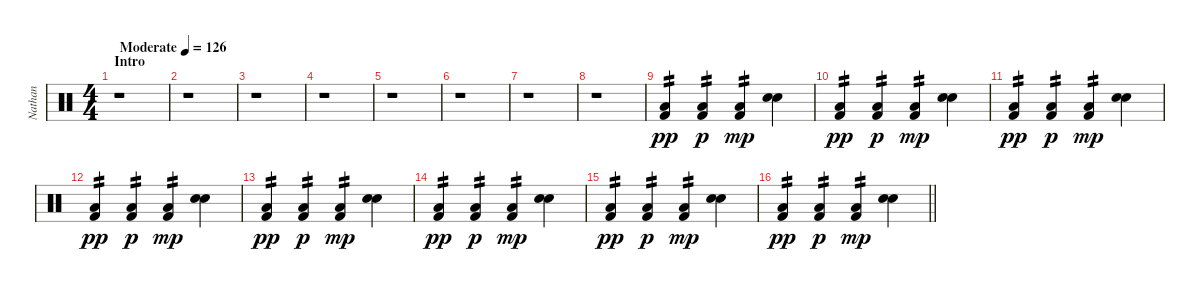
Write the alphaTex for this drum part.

\track ("Nathan" "Nathan") {instrument percussion}
\staff {score}
\articulation defaults
\ts (4 4)
\section ("" "Intro")
\tempo (126 "Moderate")
\clef neutral
\ks c
r.1{dy pp} |
r.1 |
r.1 |
r.1 |
r.1 |
r.1 |
r.1 |
r.1 |
("Kick (hit) 2" "Low Tom (hit)").4{tp 2} ("Kick (hit) 2" "Low Tom (hit)").4{tp 2 dy p} ("Kick (hit) 2" "Low Tom (hit)").4{tp 2 dy mp} ("Snare (hit) 2" "Electric Snare (hit)").4 |
("Kick (hit) 2" "Low Tom (hit)").4{tp 2 dy pp} ("Kick (hit) 2" "Low Tom (hit)").4{tp 2 dy p} ("Kick (hit) 2" "Low Tom (hit)").4{tp 2 dy mp} ("Snare (hit) 2" "Electric Snare (hit)").4 |
("Kick (hit) 2" "Low Tom (hit)").4{tp 2 dy pp} ("Kick (hit) 2" "Low Tom (hit)").4{tp 2 dy p} ("Kick (hit) 2" "Low Tom (hit)").4{tp 2 dy mp} ("Snare (hit) 2" "Electric Snare (hit)").4 |
("Kick (hit) 2" "Low Tom (hit)").4{tp 2 dy pp} ("Kick (hit) 2" "Low Tom (hit)").4{tp 2 dy p} ("Kick (hit) 2" "Low Tom (hit)").4{tp 2 dy mp} ("Snare (hit) 2" "Electric Snare (hit)").4 |
("Kick (hit) 2" "Low Tom (hit)").4{tp 2 dy pp} ("Kick (hit) 2" "Low Tom (hit)").4{tp 2 dy p} ("Kick (hit) 2" "Low Tom (hit)").4{tp 2 dy mp} ("Snare (hit) 2" "Electric Snare (hit)").4 |
("Kick (hit) 2" "Low Tom (hit)").4{tp 2 dy pp} ("Kick (hit) 2" "Low Tom (hit)").4{tp 2 dy p} ("Kick (hit) 2" "Low Tom (hit)").4{tp 2 dy mp} ("Snare (hit) 2" "Electric Snare (hit)").4 |
("Kick (hit) 2" "Low Tom (hit)").4{tp 2 dy pp} ("Kick (hit) 2" "Low Tom (hit)").4{tp 2 dy p} ("Kick (hit) 2" "Low Tom (hit)").4{tp 2 dy mp} ("Snare (hit) 2" "Electric Snare (hit)").4 |
\barLineRight lightlight
("Kick (hit) 2" "Low Tom (hit)").4{tp 2 dy pp} ("Kick (hit) 2" "Low Tom (hit)").4{tp 2 dy p} ("Kick (hit) 2" "Low Tom (hit)").4{tp 2 dy mp} ("Snare (hit) 2" "Electric Snare (hit)").4
